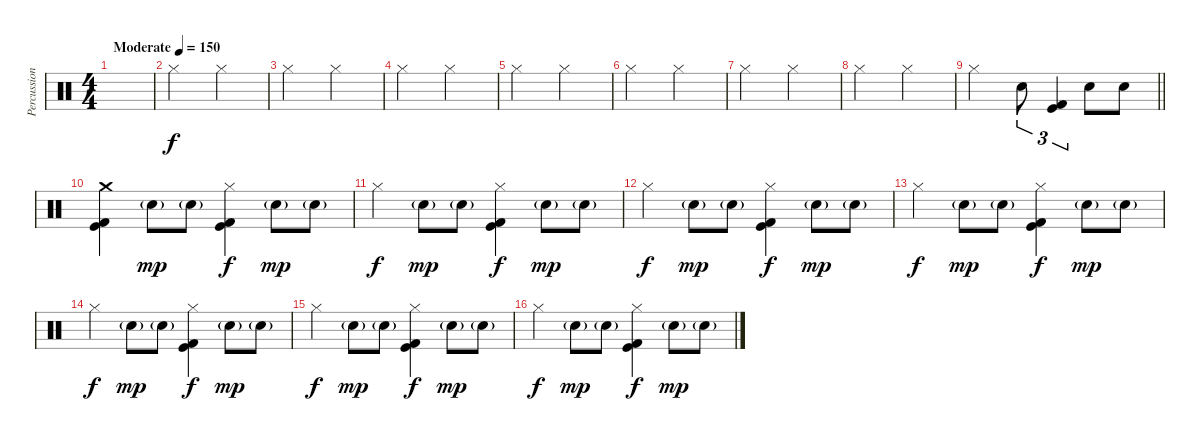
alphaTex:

\track ("Percussion" "Percussion") {instrument percussion}
\staff {score}
\articulation defaults
\ts (4 4)
\tempo (150 "Moderate")
\clef neutral
\ks c
|
"Hi-Hat (closed)".2 "Hi-Hat (closed)".2 |
"Hi-Hat (closed)".2 "Hi-Hat (closed)".2 |
"Hi-Hat (closed)".2 "Hi-Hat (closed)".2 |
"Hi-Hat (closed)".2 "Hi-Hat (closed)".2 |
"Hi-Hat (closed)".2 "Hi-Hat (closed)".2 |
"Hi-Hat (closed)".2 "Hi-Hat (closed)".2 |
"Hi-Hat (closed)".2 "Hi-Hat (closed)".2 |
\barLineRight lightlight "Hi-Hat (closed)".2 "Electric Snare (hit)".8{tu (3 2)}
("Kick (hit)" "Kick (hit) 2").4{tu (3 2)} "Electric Snare (hit)".8 "Electric Snare (hit)".8 |
\section ("" "")
("Crash medium (hit)" "Kick (hit)" "Kick (hit) 2").4 "Hand Clap (hit)"{g}.8{dy mp} "Hand Clap (hit)"{g}.8 ("Hi-Hat (closed)" "Kick (hit)" "Kick (hit) 2").4{dy f} "Hand Clap (hit)"{g}.8{dy mp} "Hand Clap (hit)"{g}.8 |
"Hi-Hat (closed)".4{dy f} "Hand Clap (hit)"{g}.8{dy mp} "Hand Clap (hit)"{g}.8 ("Hi-Hat (closed)" "Kick (hit)" "Kick (hit) 2").4{dy f} "Hand Clap (hit)"{g}.8{dy mp} "Hand Clap (hit)"{g}.8 |
"Hi-Hat (closed)".4{dy f} "Hand Clap (hit)"{g}.8{dy mp} "Hand Clap (hit)"{g}.8 ("Hi-Hat (closed)" "Kick (hit)" "Kick (hit) 2").4{dy f} "Hand Clap (hit)"{g}.8{dy mp} "Hand Clap (hit)"{g}.8 |
"Hi-Hat (closed)".4{dy f} "Hand Clap (hit)"{g}.8{dy mp} "Hand Clap (hit)"{g}.8 ("Hi-Hat (closed)" "Kick (hit)" "Kick (hit) 2").4{dy f} "Hand Clap (hit)"{g}.8{dy mp} "Hand Clap (hit)"{g}.8 |
"Hi-Hat (closed)".4{dy f} "Hand Clap (hit)"{g}.8{dy mp} "Hand Clap (hit)"{g}.8 ("Hi-Hat (closed)" "Kick (hit)" "Kick (hit) 2").4{dy f} "Hand Clap (hit)"{g}.8{dy mp} "Hand Clap (hit)"{g}.8 |
"Hi-Hat (closed)".4{dy f} "Hand Clap (hit)"{g}.8{dy mp} "Hand Clap (hit)"{g}.8 ("Hi-Hat (closed)" "Kick (hit)" "Kick (hit) 2").4{dy f} "Hand Clap (hit)"{g}.8{dy mp} "Hand Clap (hit)"{g}.8 |
"Hi-Hat (closed)".4{dy f} "Hand Clap (hit)"{g}.8{dy mp} "Hand Clap (hit)"{g}.8 ("Hi-Hat (closed)" "Kick (hit)" "Kick (hit) 2").4{dy f} "Hand Clap (hit)"{g}.8{dy mp} "Hand Clap (hit)"{g}.8
